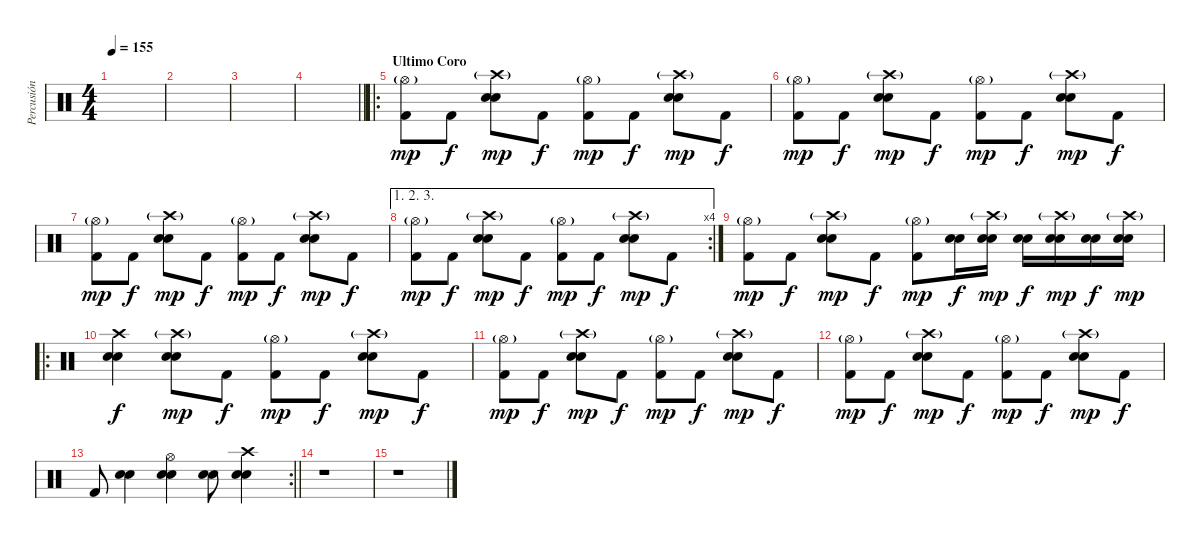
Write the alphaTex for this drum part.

\track ("Percusión" "Percusión") {instrument percussion}
\staff {score}
\articulation defaults
\ts (4 4)
\tempo 155
\clef neutral
\ks c
|
|
|
\barLineRight lightlight
|
\ro
\section ("" "Ultimo Coro")
("Hi-Hat (open)"{g} "Kick (hit) 2").8{dy mp} "Kick (hit) 2".8{dy f} ("Crash high (hit)"{g} "Snare (hit) 2" "Electric Snare (hit)").8{dy mp} "Kick (hit) 2".8{dy f} ("Hi-Hat (open)"{g} "Kick (hit) 2").8{dy mp} "Kick (hit) 2".8{dy f} ("Crash high (hit)"{g} "Snare (hit) 2" "Electric Snare (hit)").8{dy mp} "Kick (hit) 2".8{dy f} |
("Hi-Hat (open)"{g} "Kick (hit) 2").8{dy mp} "Kick (hit) 2".8{dy f} ("Crash high (hit)"{g} "Snare (hit) 2" "Electric Snare (hit)").8{dy mp} "Kick (hit) 2".8{dy f} ("Hi-Hat (open)"{g} "Kick (hit) 2").8{dy mp} "Kick (hit) 2".8{dy f} ("Crash high (hit)"{g} "Snare (hit) 2" "Electric Snare (hit)").8{dy mp} "Kick (hit) 2".8{dy f} |
("Hi-Hat (open)"{g} "Kick (hit) 2").8{dy mp} "Kick (hit) 2".8{dy f} ("Crash high (hit)"{g} "Snare (hit) 2" "Electric Snare (hit)").8{dy mp} "Kick (hit) 2".8{dy f} ("Hi-Hat (open)"{g} "Kick (hit) 2").8{dy mp} "Kick (hit) 2".8{dy f} ("Crash high (hit)"{g} "Snare (hit) 2" "Electric Snare (hit)").8{dy mp} "Kick (hit) 2".8{dy f} |
\ae (1 2 3)
\rc 4
("Hi-Hat (open)"{g} "Kick (hit) 2").8{dy mp} "Kick (hit) 2".8{dy f} ("Crash high (hit)"{g} "Snare (hit) 2" "Electric Snare (hit)").8{dy mp} "Kick (hit) 2".8{dy f} ("Hi-Hat (open)"{g} "Kick (hit) 2").8{dy mp} "Kick (hit) 2".8{dy f} ("Crash high (hit)"{g} "Snare (hit) 2" "Electric Snare (hit)").8{dy mp} "Kick (hit) 2".8{dy f} |
("Hi-Hat (open)"{g} "Kick (hit) 2").8{dy mp} "Kick (hit) 2".8{dy f} ("Crash high (hit)"{g} "Snare (hit) 2" "Electric Snare (hit)").8{dy mp} "Kick (hit) 2".8{dy f} ("Hi-Hat (open)"{g} "Kick (hit) 2").8{dy mp} ("Snare (hit) 2" "Electric Snare (hit)").16{dy f} ("Crash high (hit)"{g} "Snare (hit) 2" "Electric Snare (hit)").16{dy mp} ("Snare (hit) 2" "Electric Snare (hit)").16{dy f} ("Crash high (hit)"{g} "Snare (hit) 2" "Electric Snare (hit)").16{dy mp} ("Snare (hit) 2" "Electric Snare (hit)").16{dy f} ("Crash high (hit)"{g} "Snare (hit) 2" "Electric Snare (hit)").16{dy mp} |
\ro
("Crash high (hit)" "Snare (hit) 2" "Electric Snare (hit)").4{dy f} ("Crash high (hit)"{g} "Snare (hit) 2" "Electric Snare (hit)").8{dy mp} "Kick (hit) 2".8{dy f} ("Hi-Hat (open)"{g} "Kick (hit) 2").8{dy mp} "Kick (hit) 2".8{dy f} ("Crash high (hit)"{g} "Snare (hit) 2" "Electric Snare (hit)").8{dy mp} "Kick (hit) 2".8{dy f} |
("Hi-Hat (open)"{g} "Kick (hit) 2").8{dy mp} "Kick (hit) 2".8{dy f} ("Crash high (hit)"{g} "Snare (hit) 2" "Electric Snare (hit)").8{dy mp} "Kick (hit) 2".8{dy f} ("Hi-Hat (open)"{g} "Kick (hit) 2").8{dy mp} "Kick (hit) 2".8{dy f} ("Crash high (hit)"{g} "Snare (hit) 2" "Electric Snare (hit)").8{dy mp} "Kick (hit) 2".8{dy f} |
("Hi-Hat (open)"{g} "Kick (hit) 2").8{dy mp} "Kick (hit) 2".8{dy f} ("Crash high (hit)"{g} "Snare (hit) 2" "Electric Snare (hit)").8{dy mp} "Kick (hit) 2".8{dy f} ("Hi-Hat (open)"{g} "Kick (hit) 2").8{dy mp} "Kick (hit) 2".8{dy f} ("Crash high (hit)"{g} "Snare (hit) 2" "Electric Snare (hit)").8{dy mp} "Kick (hit) 2".8{dy f} |
\rc 2
\barLineRight lightlight "Kick (hit) 2".8
("Snare (hit) 2" "Electric Snare (hit)").4 ("Hi-Hat (open)" "Snare (hit) 2" "Electric Snare (hit)").4 ("Snare (hit) 2" "Electric Snare (hit)").8 ("Crash high (hit)" "Snare (hit) 2" "Electric Snare (hit)").4 |
r.1 |
r.1
